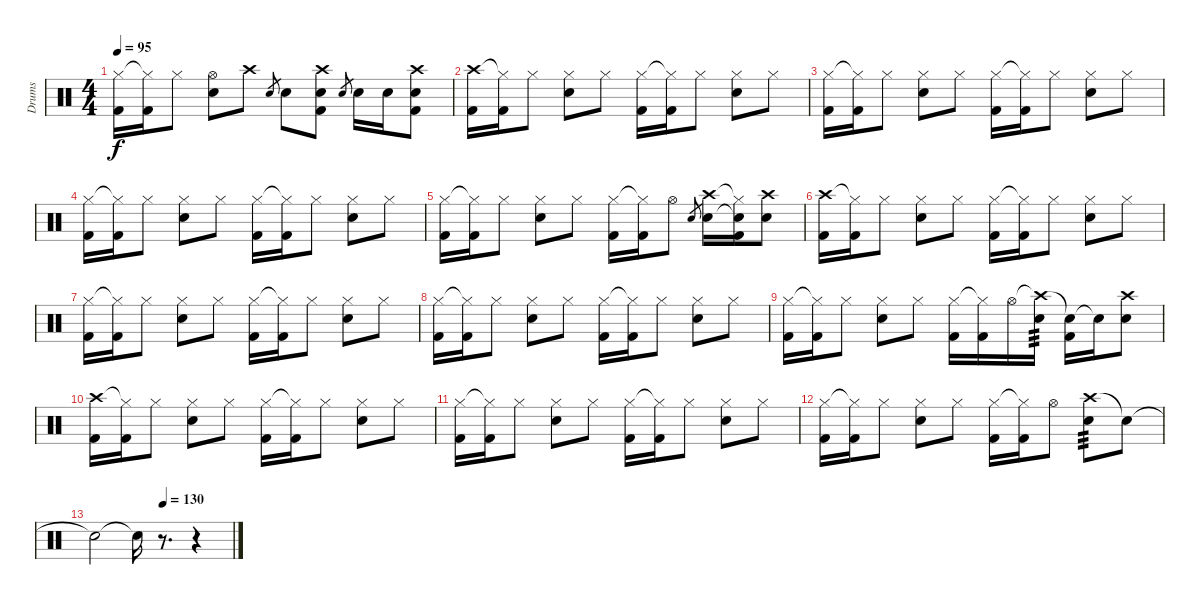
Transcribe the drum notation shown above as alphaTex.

\track ("Drums" "Drums") {instrument percussion}
\staff {score}
\articulation defaults
\ts (4 4)
\tempo 95
\clef neutral
\ks c
("Hi-Hat (closed)" "Kick (hit) 2").16{dy f} ("Hi-Hat (closed)"{t} "Kick (hit) 2").16 "Hi-Hat (closed)".8 ("Hi-Hat (open)" "Electric Snare (hit)").8 "Crash high (hit)".8 "Electric Snare (hit)".8{gr} "Electric Snare (hit)".8 ("Crash high (hit)" "Electric Snare (hit)" "Kick (hit) 2").8 "Electric Snare (hit)".8{gr} "Electric Snare (hit)".16 "Electric Snare (hit)".16 ("Crash high (hit)" "Electric Snare (hit)" "Kick (hit) 2").8 |
("Crash high (hit)" "Kick (hit) 2").16 ("Hi-Hat (closed)"{t} "Kick (hit) 2").16 "Hi-Hat (closed)".8 ("Hi-Hat (closed)" "Electric Snare (hit)").8 "Hi-Hat (closed)".8 ("Hi-Hat (closed)" "Kick (hit) 2").16 ("Hi-Hat (closed)"{t} "Kick (hit) 2").16 "Hi-Hat (closed)".8 ("Hi-Hat (closed)" "Electric Snare (hit)").8 "Hi-Hat (closed)".8 |
("Hi-Hat (closed)" "Kick (hit) 2").16 ("Hi-Hat (closed)"{t} "Kick (hit) 2").16 "Hi-Hat (closed)".8 ("Hi-Hat (closed)" "Electric Snare (hit)").8 "Hi-Hat (closed)".8 ("Hi-Hat (closed)" "Kick (hit) 2").16 ("Hi-Hat (closed)"{t} "Kick (hit) 2").16 "Hi-Hat (closed)".8 ("Hi-Hat (closed)" "Electric Snare (hit)").8 "Hi-Hat (closed)".8 |
("Hi-Hat (closed)" "Kick (hit) 2").16 ("Hi-Hat (closed)"{t} "Kick (hit) 2").16 "Hi-Hat (closed)".8 ("Hi-Hat (closed)" "Electric Snare (hit)").8 "Hi-Hat (closed)".8 ("Hi-Hat (closed)" "Kick (hit) 2").16 ("Hi-Hat (closed)"{t} "Kick (hit) 2").16 "Hi-Hat (closed)".8 ("Hi-Hat (closed)" "Electric Snare (hit)").8 "Hi-Hat (closed)".8 |
("Hi-Hat (closed)" "Kick (hit) 2").16 ("Hi-Hat (closed)"{t} "Kick (hit) 2").16 "Hi-Hat (closed)".8 ("Hi-Hat (closed)" "Electric Snare (hit)").8 "Hi-Hat (closed)".8 ("Hi-Hat (closed)" "Kick (hit) 2").16 ("Hi-Hat (closed)"{t} "Kick (hit) 2").16 "Hi-Hat (open)".8 "Electric Snare (hit)".8{gr} ("Crash high (hit)" "Electric Snare (hit)").16 ("Hi-Hat (closed)"{t} "Snare (hit)"{t} "Kick (hit) 2").16 ("Crash high (hit)" "Electric Snare (hit)").8 |
("Crash high (hit)" "Kick (hit) 2").16 ("Hi-Hat (closed)"{t} "Kick (hit) 2").16 "Hi-Hat (closed)".8 ("Hi-Hat (closed)" "Electric Snare (hit)").8 "Hi-Hat (closed)".8 ("Hi-Hat (closed)" "Kick (hit) 2").16 ("Hi-Hat (closed)"{t} "Kick (hit) 2").16 "Hi-Hat (closed)".8 ("Hi-Hat (closed)" "Electric Snare (hit)").8 "Hi-Hat (closed)".8 |
("Hi-Hat (closed)" "Kick (hit) 2").16 ("Hi-Hat (closed)"{t} "Kick (hit) 2").16 "Hi-Hat (closed)".8 ("Hi-Hat (closed)" "Electric Snare (hit)").8 "Hi-Hat (closed)".8 ("Hi-Hat (closed)" "Kick (hit) 2").16 ("Hi-Hat (closed)"{t} "Kick (hit) 2").16 "Hi-Hat (closed)".8 ("Hi-Hat (closed)" "Electric Snare (hit)").8 "Hi-Hat (closed)".8 |
("Hi-Hat (closed)" "Kick (hit) 2").16 ("Hi-Hat (closed)"{t} "Kick (hit) 2").16 "Hi-Hat (closed)".8 ("Hi-Hat (closed)" "Electric Snare (hit)").8 "Hi-Hat (closed)".8 ("Hi-Hat (closed)" "Kick (hit) 2").16 ("Hi-Hat (closed)"{t} "Kick (hit) 2").16 "Hi-Hat (closed)".8 ("Hi-Hat (closed)" "Electric Snare (hit)").8 "Hi-Hat (closed)".8 |
("Hi-Hat (closed)" "Kick (hit) 2").16 ("Hi-Hat (closed)"{t} "Kick (hit) 2").16 "Hi-Hat (closed)".8 ("Hi-Hat (closed)" "Electric Snare (hit)").8 "Hi-Hat (closed)".8 ("Hi-Hat (closed)" "Kick (hit) 2").16 ("Hi-Hat (closed)"{t} "Kick (hit) 2").16 "Hi-Hat (open)".16 ("Crash high (hit)"{t} "Electric Snare (hit)").16{tp 3} ("Snare (hit)"{t} "Kick (hit) 2").16 "Snare (hit)"{t}.16 ("Crash high (hit)" "Electric Snare (hit)").8 |
("Crash high (hit)" "Kick (hit) 2").16 ("Hi-Hat (closed)"{t} "Kick (hit) 2").16 "Hi-Hat (closed)".8 ("Hi-Hat (closed)" "Electric Snare (hit)").8 "Hi-Hat (closed)".8 ("Hi-Hat (closed)" "Kick (hit) 2").16 ("Hi-Hat (closed)"{t} "Kick (hit) 2").16 "Hi-Hat (closed)".8 ("Hi-Hat (closed)" "Electric Snare (hit)").8 "Hi-Hat (closed)".8 |
("Hi-Hat (closed)" "Kick (hit) 2").16 ("Hi-Hat (closed)"{t} "Kick (hit) 2").16 "Hi-Hat (closed)".8 ("Hi-Hat (closed)" "Electric Snare (hit)").8 "Hi-Hat (closed)".8 ("Hi-Hat (closed)" "Kick (hit) 2").16 ("Hi-Hat (closed)"{t} "Kick (hit) 2").16 "Hi-Hat (closed)".8 ("Hi-Hat (closed)" "Electric Snare (hit)").8 "Hi-Hat (closed)".8 |
("Hi-Hat (closed)" "Kick (hit) 2").16 ("Hi-Hat (closed)"{t} "Kick (hit) 2").16 "Hi-Hat (closed)".8 ("Hi-Hat (closed)" "Electric Snare (hit)").8 "Hi-Hat (closed)".8 ("Hi-Hat (closed)" "Kick (hit) 2").16 ("Hi-Hat (closed)"{t} "Kick (hit) 2").16 "Hi-Hat (open)".8 ("Crash high (hit)" "Electric Snare (hit)").8{tp 3} "Snare (hit)"{t}.8 |
\tempo (130 0.5)
"Snare (hit)"{t}.2 "Snare (hit)"{t}.16 r.8{d} r.4
